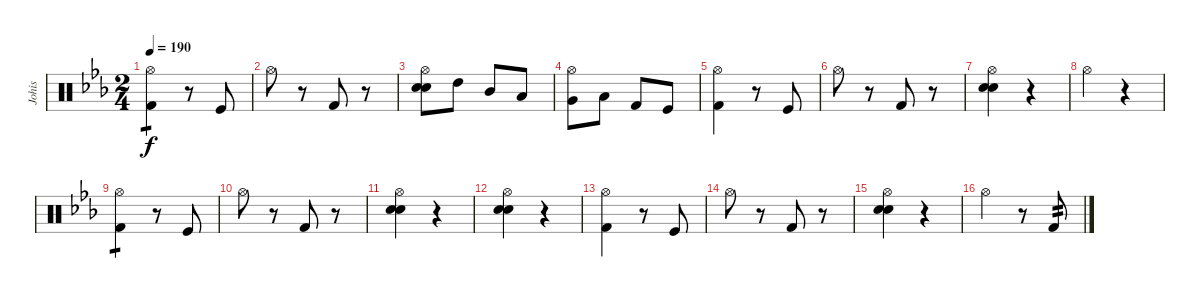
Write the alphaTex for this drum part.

\track ("Johis" "Johis") {instrument percussion}
\staff {score}
\articulation defaults
\ts (2 4)
\tempo 190
\clef neutral
\ks eb
("Hi-Hat (open)" "Kick (hit) 2").4{tp 1 dy f} r.8 "Kick (hit)".8 |
"Hi-Hat (open)".8 r.8 "Kick (hit) 2".8 r.8 |
("Hi-Hat (open)" "Snare (hit) 2" "Electric Snare (hit)").8 "High Tom (hit)".8 "Mid Tom (hit)".8 "Low Tom (hit)".8 |
("Hi-Hat (open)" "Very Low Tom (hit)").8 "Low Floor Tom (hit)".8 "Kick (hit) 2".8 "Kick (hit)".8 |
("Hi-Hat (open)" "Kick (hit) 2").4 r.8 "Kick (hit)".8 |
"Hi-Hat (open)".8 r.8 "Kick (hit) 2".8 r.8 |
("Hi-Hat (open)" "Snare (hit) 2" "Electric Snare (hit)").4 r.4 |
"Hi-Hat (open)".4 r.4 |
("Hi-Hat (open)" "Kick (hit) 2").4{tp 1} r.8 "Kick (hit)".8 |
"Hi-Hat (open)".8 r.8 "Kick (hit) 2".8 r.8 |
("Hi-Hat (open)" "Snare (hit) 2" "Electric Snare (hit)").4 r.4 |
("Hi-Hat (open)" "Snare (hit) 2" "Electric Snare (hit)").4 r.4 |
("Hi-Hat (open)" "Kick (hit) 2").4 r.8 "Kick (hit)".8 |
"Hi-Hat (open)".8 r.8 "Kick (hit) 2".8 r.8 |
("Hi-Hat (open)" "Snare (hit) 2" "Electric Snare (hit)").4 r.4 |
"Hi-Hat (open)".4 r.8 "Kick (hit) 2".8{tp 2}
